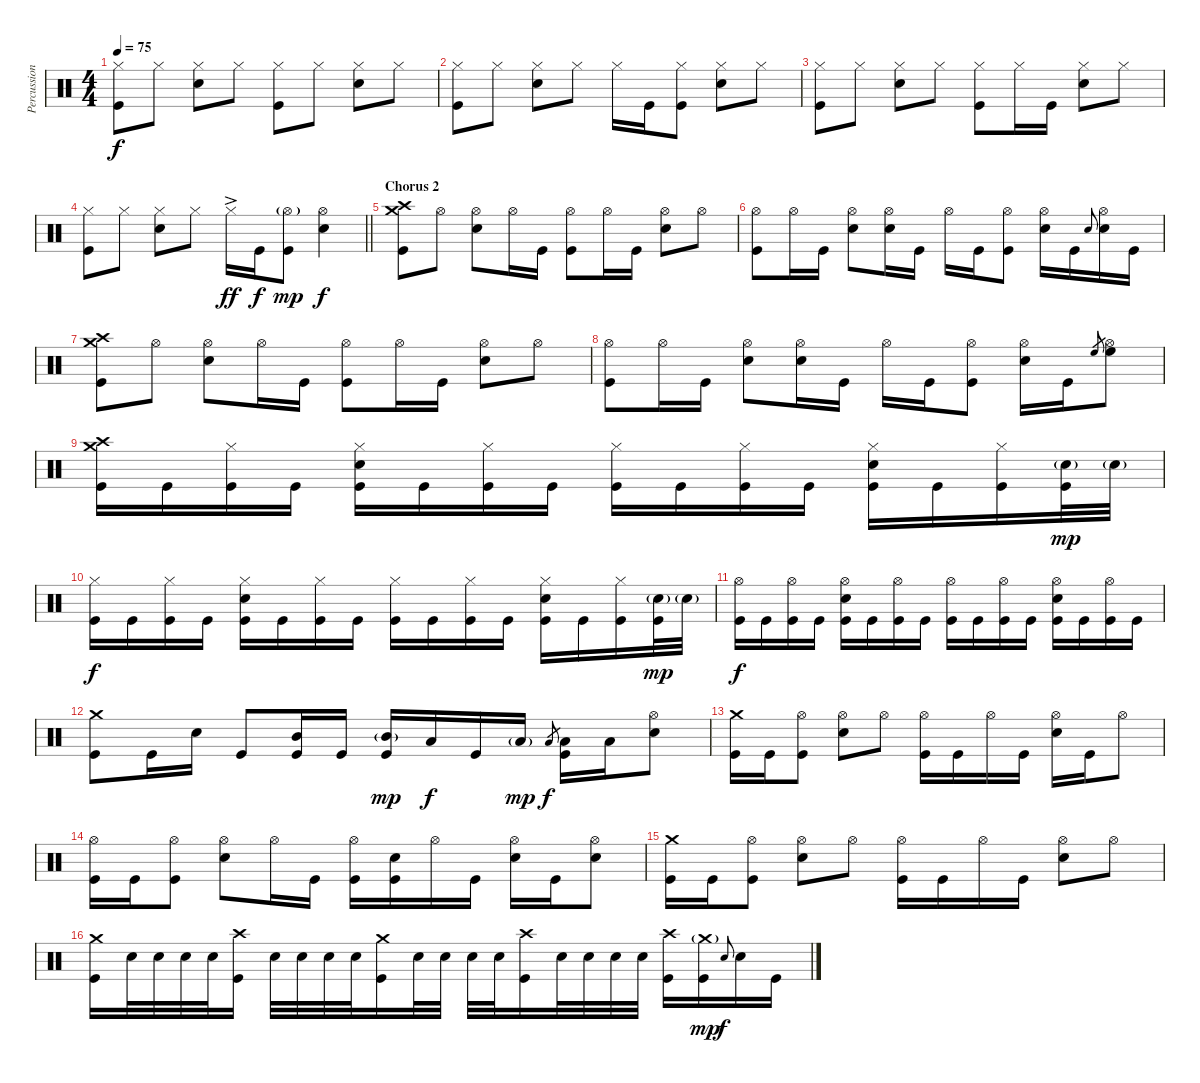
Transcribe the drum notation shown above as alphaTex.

\track ("Percussion" "Percussion") {instrument percussion}
\staff {score}
\articulation defaults
\ts (4 4)
\tempo 75
\clef neutral
\ks c
("Hi-Hat (closed)" "Kick (hit)").8{dy f} "Hi-Hat (closed)".8 ("Hi-Hat (closed)" "Snare (hit) 2").8 "Hi-Hat (closed)".8 ("Hi-Hat (closed)" "Kick (hit)").8 "Hi-Hat (closed)".8 ("Hi-Hat (closed)" "Snare (hit) 2").8 "Hi-Hat (closed)".8 |
("Hi-Hat (closed)" "Kick (hit)").8 "Hi-Hat (closed)".8 ("Hi-Hat (closed)" "Snare (hit) 2").8 "Hi-Hat (closed)".8 "Hi-Hat (closed)".16 "Kick (hit)".16 ("Hi-Hat (closed)" "Kick (hit)").8 ("Hi-Hat (closed)" "Snare (hit) 2").8 "Hi-Hat (closed)".8 |
("Hi-Hat (closed)" "Kick (hit)").8 "Hi-Hat (closed)".8 ("Hi-Hat (closed)" "Snare (hit) 2").8 "Hi-Hat (closed)".8 ("Hi-Hat (closed)" "Kick (hit)").8 "Hi-Hat (closed)".16 "Kick (hit)".16 ("Hi-Hat (closed)" "Snare (hit) 2").8 "Hi-Hat (closed)".8 |
\barLineRight lightlight
("Hi-Hat (closed)" "Kick (hit)").8 "Hi-Hat (closed)".8 ("Hi-Hat (closed)" "Snare (hit) 2").8 "Hi-Hat (closed)".8 "Hi-Hat (closed)"{ac}.16{dy ff} "Kick (hit)".16{dy f} ("Hi-Hat (open)"{g} "Kick (hit)").8{dy mp} ("Hi-Hat (open)" "Snare (hit) 2").4{dy f} |
\section ("" "Chorus 2")
("Crash high (hit)" "Crash medium (hit)" "Kick (hit)").8 "Hi-Hat (open)".8 ("Hi-Hat (open)" "Snare (hit) 2").8 "Hi-Hat (open)".16 "Kick (hit)".16 ("Hi-Hat (open)" "Kick (hit)").8 "Hi-Hat (open)".16 "Kick (hit)".16 ("Hi-Hat (open)" "Snare (hit) 2").8 "Hi-Hat (open)".8 |
("Hi-Hat (open)" "Kick (hit)").8 "Hi-Hat (open)".16 "Kick (hit)".16 ("Hi-Hat (open)" "Snare (hit) 2").8 ("Hi-Hat (open)" "Snare (hit) 2").16 "Kick (hit)".16 "Hi-Hat (open)".16 "Kick (hit)".16 ("Hi-Hat (open)" "Kick (hit)").8 ("Hi-Hat (open)" "Snare (hit) 2").16 "Kick (hit)".16 "Snare (hit) 2".8{gr onbeat} ("Hi-Hat (open)" "Snare (hit) 2").16 "Kick (hit)".16 |
("Crash high (hit)" "Crash medium (hit)" "Kick (hit)").8 "Hi-Hat (open)".8 ("Hi-Hat (open)" "Snare (hit) 2").8 "Hi-Hat (open)".16 "Kick (hit)".16 ("Hi-Hat (open)" "Kick (hit)").8 "Hi-Hat (open)".16 "Kick (hit)".16 ("Hi-Hat (open)" "Snare (hit) 2").8 "Hi-Hat (open)".8 |
("Hi-Hat (open)" "Kick (hit)").8 "Hi-Hat (open)".16 "Kick (hit)".16 ("Hi-Hat (open)" "Snare (hit) 2").8 ("Hi-Hat (open)" "Snare (hit) 2").16 "Kick (hit)".16 "Hi-Hat (open)".16 "Kick (hit)".16 ("Hi-Hat (open)" "Kick (hit)").8 ("Hi-Hat (open)" "Snare (hit) 2").16 "Kick (hit)".16 "High Floor Tom (hit)".8{gr} ("Hi-Hat (open)" "High Floor Tom (hit)").8 |
("Crash high (hit)" "Crash medium (hit)" "Kick (hit)").16 "Kick (hit)".16 ("Hi-Hat (closed)" "Kick (hit)").16 "Kick (hit)".16 ("Hi-Hat (closed)" "Snare (hit) 2" "Kick (hit)").16 "Kick (hit)".16 ("Hi-Hat (closed)" "Kick (hit)").16 "Kick (hit)".16 ("Hi-Hat (closed)" "Kick (hit)").16 "Kick (hit)".16 ("Hi-Hat (closed)" "Kick (hit)").16 "Kick (hit)".16 ("Hi-Hat (closed)" "Snare (hit) 2" "Kick (hit)").16 "Kick (hit)".16 ("Hi-Hat (closed)" "Kick (hit)").16 ("Snare (hit) 2"{g} "Kick (hit)").32{dy mp} "Snare (hit) 2"{g}.32 |
("Hi-Hat (closed)" "Kick (hit)").16{dy f} "Kick (hit)".16 ("Hi-Hat (closed)" "Kick (hit)").16 "Kick (hit)".16 ("Hi-Hat (closed)" "Snare (hit) 2" "Kick (hit)").16 "Kick (hit)".16 ("Hi-Hat (closed)" "Kick (hit)").16 "Kick (hit)".16 ("Hi-Hat (closed)" "Kick (hit)").16 "Kick (hit)".16 ("Hi-Hat (closed)" "Kick (hit)").16 "Kick (hit)".16 ("Hi-Hat (closed)" "Snare (hit) 2" "Kick (hit)").16 "Kick (hit)".16 ("Hi-Hat (closed)" "Kick (hit)").16 ("Snare (hit) 2"{g} "Kick (hit)").32{dy mp} "Snare (hit) 2"{g}.32 |
("Hi-Hat (open)" "Kick (hit)").16{dy f} "Kick (hit)".16 ("Hi-Hat (open)" "Kick (hit)").16 "Kick (hit)".16 ("Hi-Hat (open)" "Snare (hit) 2" "Kick (hit)").16 "Kick (hit)".16 ("Hi-Hat (open)" "Kick (hit)").16 "Kick (hit)".16 ("Hi-Hat (open)" "Kick (hit)").16 "Kick (hit)".16 ("Hi-Hat (open)" "Kick (hit)").16 "Kick (hit)".16 ("Hi-Hat (open)" "Snare (hit) 2" "Kick (hit)").16 "Kick (hit)".16 ("Hi-Hat (open)" "Kick (hit)").16 "Kick (hit)".16 |
("Crash medium (hit)" "Kick (hit)").8 "Kick (hit)".16 "Snare (hit) 2".16 "Kick (hit)".8 ("Mid Tom (hit)" "Kick (hit)").16 "Kick (hit)".16 ("Mid Tom (hit)"{g} "Kick (hit)").16{dy mp} "Low Tom (hit)".16{dy f} "Kick (hit)".16 "Low Tom (hit)"{g}.16{dy mp} "Low Floor Tom (hit)".8{gr dy f} ("Low Floor Tom (hit)" "Kick (hit)").16 "Low Floor Tom (hit)".16 ("Hi-Hat (open)" "Snare (hit) 2").8 |
("Crash medium (hit)" "Kick (hit)").16 "Kick (hit)".16 ("Hi-Hat (open)" "Kick (hit)").8 ("Hi-Hat (open)" "Snare (hit) 2").8 "Hi-Hat (open)".8 ("Hi-Hat (open)" "Kick (hit)").16 "Kick (hit)".16 "Hi-Hat (open)".16 "Kick (hit)".16 ("Hi-Hat (open)" "Snare (hit) 2").16 "Kick (hit)".16 "Hi-Hat (open)".8 |
("Hi-Hat (open)" "Kick (hit)").16 "Kick (hit)".16 ("Hi-Hat (open)" "Kick (hit)").8 ("Hi-Hat (open)" "Snare (hit) 2").8 "Hi-Hat (open)".16 "Kick (hit)".16 ("Hi-Hat (open)" "Kick (hit)").16 ("Snare (hit) 2" "Kick (hit)").16 "Hi-Hat (open)".16 "Kick (hit)".16 ("Hi-Hat (open)" "Snare (hit) 2").16 "Kick (hit)".16 ("Hi-Hat (open)" "Snare (hit) 2").8 |
("Crash medium (hit)" "Kick (hit)").16 "Kick (hit)".16 ("Hi-Hat (open)" "Kick (hit)").8 ("Hi-Hat (open)" "Snare (hit) 2").8 "Hi-Hat (open)".8 ("Hi-Hat (open)" "Kick (hit)").16 "Kick (hit)".16 "Hi-Hat (open)".16 "Kick (hit)".16 ("Hi-Hat (open)" "Snare (hit) 2").8 "Hi-Hat (open)".8 |
("Crash medium (hit)" "Kick (hit)").16 "Snare (hit) 2".32 "Snare (hit) 2".32 "Snare (hit) 2".32 "Snare (hit) 2".32 ("Crash high (hit)" "Kick (hit)").16 "Snare (hit) 2".32 "Snare (hit) 2".32 "Snare (hit) 2".32 "Snare (hit) 2".32 ("Crash medium (hit)" "Kick (hit)").16 "Snare (hit) 2".32 "Snare (hit) 2".32 "Snare (hit) 2".32 "Snare (hit) 2".32 ("Crash high (hit)" "Kick (hit)").16 "Snare (hit) 2".32 "Snare (hit) 2".32 "Snare (hit) 2".32 "Snare (hit) 2".32 ("Crash high (hit)" "Kick (hit)").16 ("Crash medium (hit)"{g} "Kick (hit)").16{dy mp} "Snare (hit) 2".8{gr onbeat dy f} "Snare (hit) 2".16 "Kick (hit)".16
